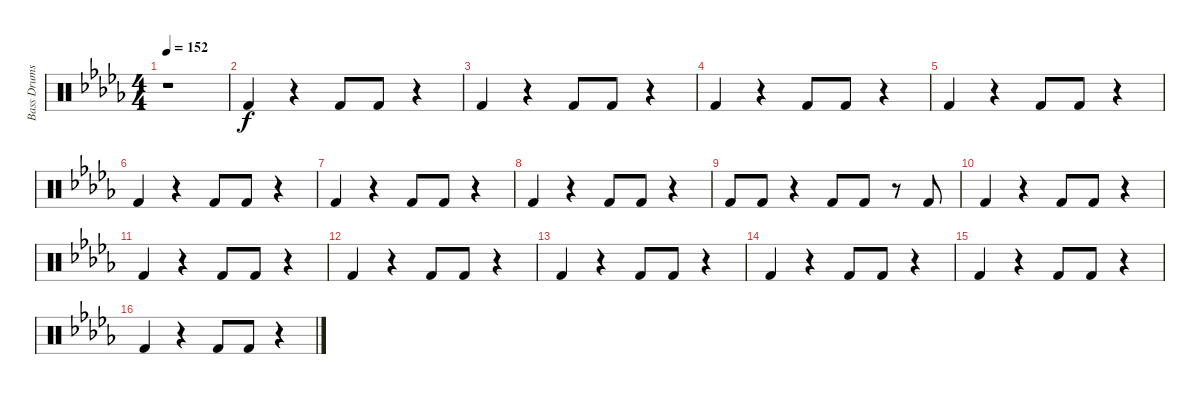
\track ("Bass Drums" "Bass Drums") {instrument percussion}
\staff {score}
\articulation defaults
\ts (4 4)
\tempo 152
\clef neutral
\ks db
r.1{dy f} |
"Kick (hit) 2".4 r.4 "Kick (hit) 2".8 "Kick (hit) 2".8 r.4 |
"Kick (hit) 2".4 r.4 "Kick (hit) 2".8 "Kick (hit) 2".8 r.4 |
"Kick (hit) 2".4 r.4 "Kick (hit) 2".8 "Kick (hit) 2".8 r.4 |
"Kick (hit) 2".4 r.4 "Kick (hit) 2".8 "Kick (hit) 2".8 r.4 |
"Kick (hit) 2".4 r.4 "Kick (hit) 2".8 "Kick (hit) 2".8 r.4 |
"Kick (hit) 2".4 r.4 "Kick (hit) 2".8 "Kick (hit) 2".8 r.4 |
"Kick (hit) 2".4 r.4 "Kick (hit) 2".8 "Kick (hit) 2".8 r.4 |
"Kick (hit) 2".8 "Kick (hit) 2".8 r.4 "Kick (hit) 2".8 "Kick (hit) 2".8 r.8 "Kick (hit) 2".8 |
"Kick (hit) 2".4 r.4 "Kick (hit) 2".8 "Kick (hit) 2".8 r.4 |
"Kick (hit) 2".4 r.4 "Kick (hit) 2".8 "Kick (hit) 2".8 r.4 |
"Kick (hit) 2".4 r.4 "Kick (hit) 2".8 "Kick (hit) 2".8 r.4 |
"Kick (hit) 2".4 r.4 "Kick (hit) 2".8 "Kick (hit) 2".8 r.4 |
"Kick (hit) 2".4 r.4 "Kick (hit) 2".8 "Kick (hit) 2".8 r.4 |
"Kick (hit) 2".4 r.4 "Kick (hit) 2".8 "Kick (hit) 2".8 r.4 |
"Kick (hit) 2".4 r.4 "Kick (hit) 2".8 "Kick (hit) 2".8 r.4
